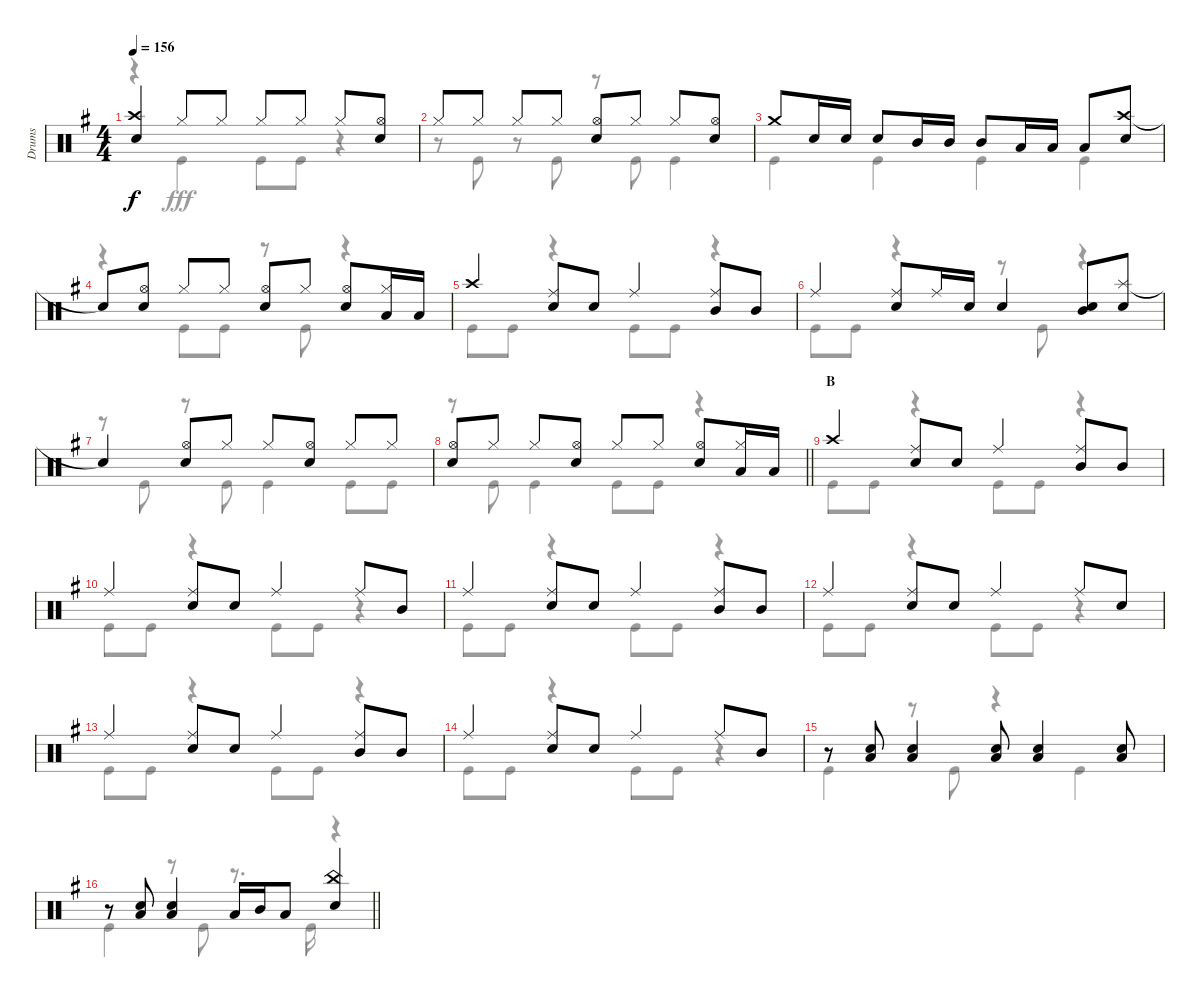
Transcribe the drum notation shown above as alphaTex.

\track ("Drums" "Drums") {instrument percussion}
\staff {score}
\articulation defaults
\voice
\ts (4 4)
\tempo 156
\clef neutral
\ks g
("Crash high (hit)" "Snare (hit) 2").4{dy f} "Hi-Hat (closed)".8 "Hi-Hat (closed)".8 "Hi-Hat (closed)".8 "Hi-Hat (closed)".8 "Hi-Hat (closed)".8 ("Hi-Hat (open)" "Snare (hit) 2").8 |
"Hi-Hat (closed)".8 "Hi-Hat (closed)".8 "Hi-Hat (closed)".8 "Hi-Hat (closed)".8 ("Hi-Hat (open)" "Snare (hit) 2").8 "Hi-Hat (closed)".8 "Hi-Hat (closed)".8 ("Hi-Hat (open)" "Snare (hit) 2").8 |
"Crash medium (hit)".8 "Snare (hit) 2".16 "Snare (hit) 2".16 "Snare (hit) 2".8 "Mid Tom (hit)".16 "Mid Tom (hit)".16 "Mid Tom (hit)".8 "Low Tom (hit)".16 "Low Tom (hit)".16 "Low Tom (hit)".8 ("Crash high (hit)" "Snare (hit) 2").8 |
"Snare (hit)"{t}.8 ("Hi-Hat (open)" "Snare (hit) 2").8 "Hi-Hat (closed)".8 "Hi-Hat (closed)".8 ("Hi-Hat (open)" "Snare (hit) 2").8 "Hi-Hat (closed)".8 ("Hi-Hat (open)" "Snare (hit) 2").8 ("Hi-Hat (closed)" "Low Tom (hit)").16 "Low Tom (hit)".16 |
"Crash high (hit)".4 ("Ride (middle)" "Snare (hit) 2").8 "Snare (hit) 2".8 "Ride (middle)".4 ("Ride (middle)" "Mid Tom (hit)").8 "Mid Tom (hit)".8 |
"Ride (middle)".4 ("Ride (middle)" "Snare (hit) 2").8 "Ride (middle)".16 "Snare (hit) 2".16 "Snare (hit) 2".4 ("Mid Tom (hit)" "Snare (hit) 2").8 ("Splash (hit)" "Snare (hit) 2").8 |
"Snare (hit)"{t}.4 ("Hi-Hat (open)" "Snare (hit) 2").8 "Hi-Hat (closed)".8 "Hi-Hat (closed)".8 ("Hi-Hat (open)" "Snare (hit) 2").8 "Hi-Hat (closed)".8 "Hi-Hat (closed)".8 |
\barLineRight lightlight
("Hi-Hat (open)" "Snare (hit) 2").8 "Hi-Hat (closed)".8 "Hi-Hat (closed)".8 ("Hi-Hat (open)" "Snare (hit) 2").8 "Hi-Hat (closed)".8 "Hi-Hat (closed)".8 ("Hi-Hat (open)" "Snare (hit) 2").8 ("Hi-Hat (closed)" "Low Tom (hit)").16 "Low Tom (hit)".16 |
\section ("" "B")
"Crash high (hit)".4 ("Ride (middle)" "Snare (hit) 2").8 "Snare (hit) 2".8 "Ride (middle)".4 ("Ride (middle)" "Mid Tom (hit)").8 "Mid Tom (hit)".8 |
"Ride (middle)".4 ("Ride (middle)" "Snare (hit) 2").8 "Snare (hit) 2".8 "Ride (middle)".4 "Ride (middle)".8 "Mid Tom (hit)".8 |
"Ride (middle)".4 ("Ride (middle)" "Snare (hit) 2").8 "Snare (hit) 2".8 "Ride (middle)".4 ("Ride (middle)" "Mid Tom (hit)").8 "Mid Tom (hit)".8 |
"Ride (middle)".4 ("Ride (middle)" "Snare (hit) 2").8 "Snare (hit) 2".8 "Ride (middle)".4 "Ride (middle)".8 "Snare (hit) 2".8 |
"Ride (middle)".4 ("Ride (middle)" "Snare (hit) 2").8 "Snare (hit) 2".8 "Ride (middle)".4 ("Mid Tom (hit)" "Ride (middle)").8 "Mid Tom (hit)".8 |
"Ride (middle)".4 ("Ride (middle)" "Snare (hit) 2").8 "Snare (hit) 2".8 "Ride (middle)".4 "Ride (middle)".8 "Mid Tom (hit)".8 |
r.8 ("Snare (hit) 2" "Low Tom (hit)").8 ("Snare (hit) 2" "Low Tom (hit)").4 ("Snare (hit) 2" "Low Tom (hit)").8 ("Snare (hit) 2" "Low Tom (hit)").4 ("Snare (hit) 2" "Low Tom (hit)").8 |
\barLineRight lightlight
r.8 ("Snare (hit) 2" "Low Tom (hit)").8 ("Snare (hit) 2" "Low Tom (hit)").4 "Low Tom (hit)".16 "Mid Tom (hit)".16 "Low Tom (hit)".8 ("Snare (hit) 2" "China (hit)").4
\voice
\clef neutral
\ottava regular
\simile none
\ks g
r.4{dy fff} "Kick (hit)".4 "Kick (hit)".8 "Kick (hit)".8 r.4 |
r.8 "Kick (hit)".8 r.8 "Kick (hit)".8 r.8 "Kick (hit)".8 "Kick (hit)".4 |
"Kick (hit)".4 "Kick (hit)".4 "Kick (hit)".4 "Kick (hit)".4 |
r.4 "Kick (hit)".8 "Kick (hit)".8 r.8 "Kick (hit)".8 r.4 |
"Kick (hit)".8 "Kick (hit)".8 r.4 "Kick (hit)".8 "Kick (hit)".8 r.4 |
"Kick (hit)".8 "Kick (hit)".8 r.4 r.8 "Kick (hit)".8 r.4 |
r.8 "Kick (hit)".8 r.8 "Kick (hit)".8 "Kick (hit)".4 "Kick (hit)".8 "Kick (hit)".8 |
\barLineRight lightlight
r.8 "Kick (hit)".8 "Kick (hit)".4 "Kick (hit)".8 "Kick (hit)".8 r.4 |
"Kick (hit)".8 "Kick (hit)".8 r.4 "Kick (hit)".8 "Kick (hit)".8 r.4 |
"Kick (hit)".8 "Kick (hit)".8 r.4 "Kick (hit)".8 "Kick (hit)".8 r.4 |
"Kick (hit)".8 "Kick (hit)".8 r.4 "Kick (hit)".8 "Kick (hit)".8 r.4 |
"Kick (hit)".8 "Kick (hit)".8 r.4 "Kick (hit)".8 "Kick (hit)".8 r.4 |
"Kick (hit)".8 "Kick (hit)".8 r.4 "Kick (hit)".8 "Kick (hit)".8 r.4 |
"Kick (hit)".8 "Kick (hit)".8 r.4 "Kick (hit)".8 "Kick (hit)".8 r.4 |
"Kick (hit)".4 r.8 "Kick (hit)".8 r.4 "Kick (hit)".4 |
\barLineRight lightlight "Kick (hit)".4
r.8 "Kick (hit)".8 r.8{d} "Kick (hit)".16 r.4
